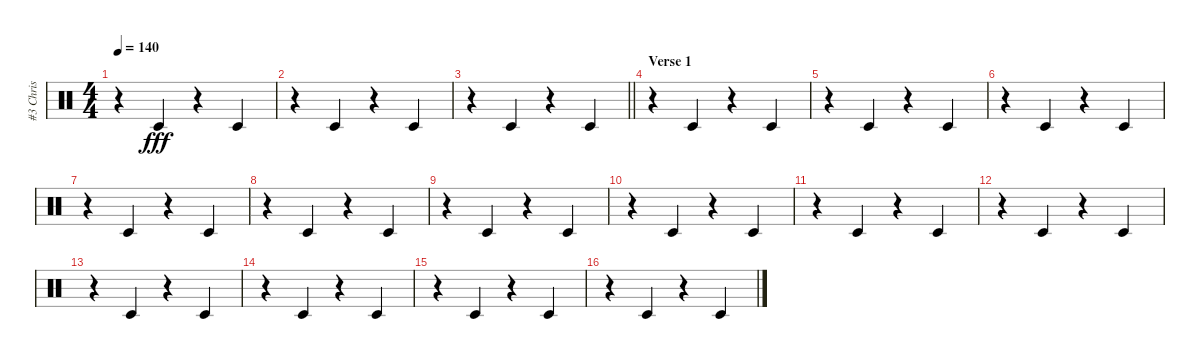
\track ("#3 Chris" "#3 Chris") {solo instrument percussion}
\staff {score}
\articulation defaults
\ts (4 4)
\tempo 140
\clef neutral
\ks c
r.4{dy fff} "Timbale low (hit)".4 r.4 "Timbale low (hit)".4 |
r.4 "Timbale low (hit)".4 r.4 "Timbale low (hit)".4 |
\barLineRight lightlight
r.4 "Timbale low (hit)".4 r.4 "Timbale low (hit)".4 |
\section ("" "Verse 1")
r.4 "Timbale low (hit)".4 r.4 "Timbale low (hit)".4 |
r.4 "Timbale low (hit)".4 r.4 "Timbale low (hit)".4 |
r.4 "Timbale low (hit)".4 r.4 "Timbale low (hit)".4 |
r.4 "Timbale low (hit)".4 r.4 "Timbale low (hit)".4 |
r.4 "Timbale low (hit)".4 r.4 "Timbale low (hit)".4 |
r.4 "Timbale low (hit)".4 r.4 "Timbale low (hit)".4 |
r.4 "Timbale low (hit)".4 r.4 "Timbale low (hit)".4 |
r.4 "Timbale low (hit)".4 r.4 "Timbale low (hit)".4 |
r.4 "Timbale low (hit)".4 r.4 "Timbale low (hit)".4 |
r.4 "Timbale low (hit)".4 r.4 "Timbale low (hit)".4 |
r.4 "Timbale low (hit)".4 r.4 "Timbale low (hit)".4 |
r.4 "Timbale low (hit)".4 r.4 "Timbale low (hit)".4 |
r.4 "Timbale low (hit)".4 r.4 "Timbale low (hit)".4
